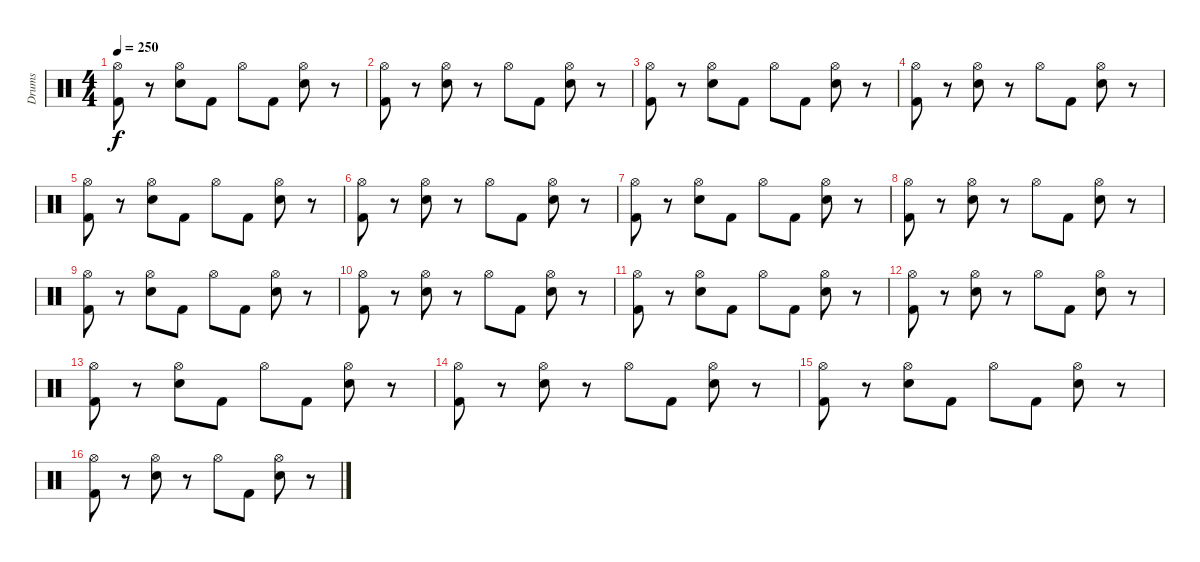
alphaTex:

\track ("Drums" "Drums") {instrument percussion}
\staff {score}
\articulation defaults
\ts (4 4)
\tempo 250
\clef neutral
\ks c
("Hi-Hat (open)" "Kick (hit) 2").8{dy f} r.8 ("Hi-Hat (open)" "Electric Snare (hit)").8 "Kick (hit) 2".8 "Hi-Hat (open)".8 "Kick (hit) 2".8 ("Hi-Hat (open)" "Electric Snare (hit)").8 r.8 |
("Hi-Hat (open)" "Kick (hit) 2").8 r.8 ("Hi-Hat (open)" "Electric Snare (hit)").8 r.8 "Hi-Hat (open)".8 "Kick (hit) 2".8 ("Hi-Hat (open)" "Electric Snare (hit)").8 r.8 |
("Hi-Hat (open)" "Kick (hit) 2").8 r.8 ("Hi-Hat (open)" "Electric Snare (hit)").8 "Kick (hit) 2".8 "Hi-Hat (open)".8 "Kick (hit) 2".8 ("Hi-Hat (open)" "Electric Snare (hit)").8 r.8 |
("Hi-Hat (open)" "Kick (hit) 2").8 r.8 ("Hi-Hat (open)" "Electric Snare (hit)").8 r.8 "Hi-Hat (open)".8 "Kick (hit) 2".8 ("Hi-Hat (open)" "Electric Snare (hit)").8 r.8 |
("Hi-Hat (open)" "Kick (hit) 2").8 r.8 ("Hi-Hat (open)" "Electric Snare (hit)").8 "Kick (hit) 2".8 "Hi-Hat (open)".8 "Kick (hit) 2".8 ("Hi-Hat (open)" "Electric Snare (hit)").8 r.8 |
("Hi-Hat (open)" "Kick (hit) 2").8 r.8 ("Hi-Hat (open)" "Electric Snare (hit)").8 r.8 "Hi-Hat (open)".8 "Kick (hit) 2".8 ("Hi-Hat (open)" "Electric Snare (hit)").8 r.8 |
("Hi-Hat (open)" "Kick (hit) 2").8 r.8 ("Hi-Hat (open)" "Electric Snare (hit)").8 "Kick (hit) 2".8 "Hi-Hat (open)".8 "Kick (hit) 2".8 ("Hi-Hat (open)" "Electric Snare (hit)").8 r.8 |
("Hi-Hat (open)" "Kick (hit) 2").8 r.8 ("Hi-Hat (open)" "Electric Snare (hit)").8 r.8 "Hi-Hat (open)".8 "Kick (hit) 2".8 ("Hi-Hat (open)" "Electric Snare (hit)").8 r.8 |
("Hi-Hat (open)" "Kick (hit) 2").8 r.8 ("Hi-Hat (open)" "Electric Snare (hit)").8 "Kick (hit) 2".8 "Hi-Hat (open)".8 "Kick (hit) 2".8 ("Hi-Hat (open)" "Electric Snare (hit)").8 r.8 |
("Hi-Hat (open)" "Kick (hit) 2").8 r.8 ("Hi-Hat (open)" "Electric Snare (hit)").8 r.8 "Hi-Hat (open)".8 "Kick (hit) 2".8 ("Hi-Hat (open)" "Electric Snare (hit)").8 r.8 |
("Hi-Hat (open)" "Kick (hit) 2").8 r.8 ("Hi-Hat (open)" "Electric Snare (hit)").8 "Kick (hit) 2".8 "Hi-Hat (open)".8 "Kick (hit) 2".8 ("Hi-Hat (open)" "Electric Snare (hit)").8 r.8 |
("Hi-Hat (open)" "Kick (hit) 2").8 r.8 ("Hi-Hat (open)" "Electric Snare (hit)").8 r.8 "Hi-Hat (open)".8 "Kick (hit) 2".8 ("Hi-Hat (open)" "Electric Snare (hit)").8 r.8 |
("Hi-Hat (open)" "Kick (hit) 2").8 r.8 ("Hi-Hat (open)" "Electric Snare (hit)").8 "Kick (hit) 2".8 "Hi-Hat (open)".8 "Kick (hit) 2".8 ("Hi-Hat (open)" "Electric Snare (hit)").8 r.8 |
("Hi-Hat (open)" "Kick (hit) 2").8 r.8 ("Hi-Hat (open)" "Electric Snare (hit)").8 r.8 "Hi-Hat (open)".8 "Kick (hit) 2".8 ("Hi-Hat (open)" "Electric Snare (hit)").8 r.8 |
("Hi-Hat (open)" "Kick (hit) 2").8 r.8 ("Hi-Hat (open)" "Electric Snare (hit)").8 "Kick (hit) 2".8 "Hi-Hat (open)".8 "Kick (hit) 2".8 ("Hi-Hat (open)" "Electric Snare (hit)").8 r.8 |
("Hi-Hat (open)" "Kick (hit) 2").8 r.8 ("Hi-Hat (open)" "Electric Snare (hit)").8 r.8 "Hi-Hat (open)".8 "Kick (hit) 2".8 ("Hi-Hat (open)" "Electric Snare (hit)").8 r.8
